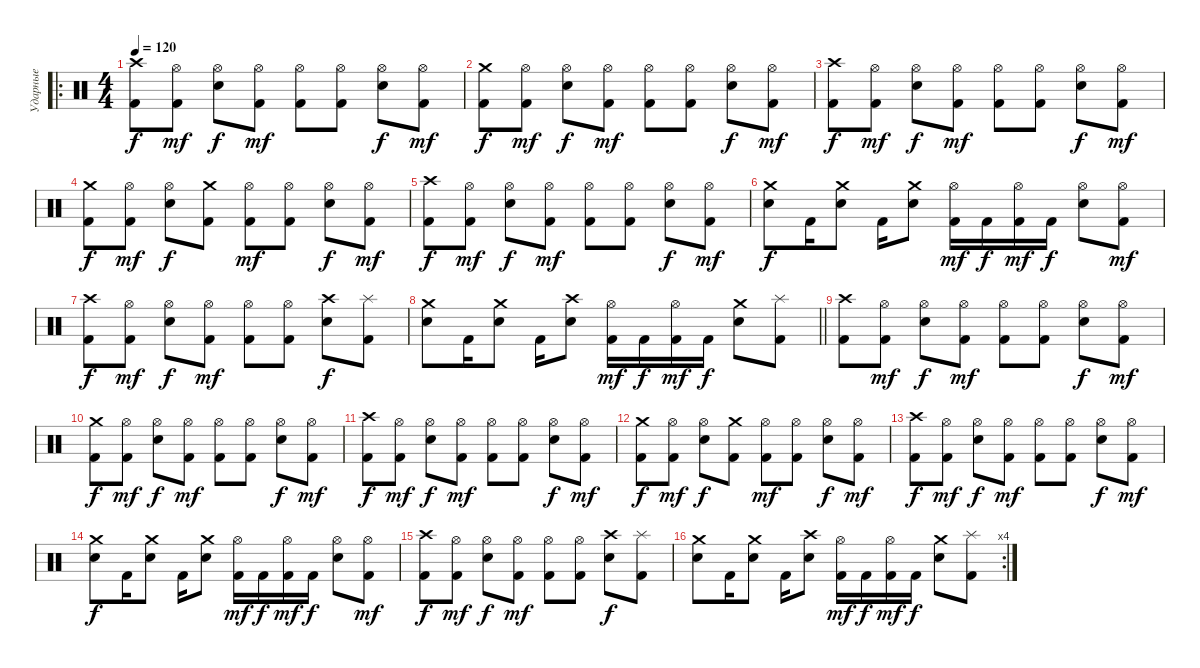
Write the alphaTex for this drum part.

\track ("Ударные" "Ударные") {instrument percussion}
\staff {score}
\articulation defaults
\ro
\ts (4 4)
\tempo 120
\clef neutral
\ks c
("Crash high (hit)" "Kick (hit) 2").8{dy f} ("Hi-Hat (open)" "Kick (hit) 2").8{dy mf} ("Hi-Hat (open)" "Electric Snare (hit)").8{dy f} ("Hi-Hat (open)" "Kick (hit) 2").8{dy mf} ("Hi-Hat (open)" "Kick (hit) 2").8 ("Hi-Hat (open)" "Kick (hit) 2").8 ("Hi-Hat (open)" "Electric Snare (hit)").8{dy f} ("Hi-Hat (open)" "Kick (hit) 2").8{dy mf} |
("Crash medium (hit)" "Kick (hit) 2").8{dy f} ("Hi-Hat (open)" "Kick (hit) 2").8{dy mf} ("Hi-Hat (open)" "Electric Snare (hit)").8{dy f} ("Hi-Hat (open)" "Kick (hit) 2").8{dy mf} ("Hi-Hat (open)" "Kick (hit) 2").8 ("Hi-Hat (open)" "Kick (hit) 2").8 ("Hi-Hat (open)" "Electric Snare (hit)").8{dy f} ("Hi-Hat (open)" "Kick (hit) 2").8{dy mf} |
("Crash high (hit)" "Kick (hit) 2").8{dy f} ("Hi-Hat (open)" "Kick (hit) 2").8{dy mf} ("Hi-Hat (open)" "Electric Snare (hit)").8{dy f} ("Hi-Hat (open)" "Kick (hit) 2").8{dy mf} ("Hi-Hat (open)" "Kick (hit) 2").8 ("Hi-Hat (open)" "Kick (hit) 2").8 ("Hi-Hat (open)" "Electric Snare (hit)").8{dy f} ("Hi-Hat (open)" "Kick (hit) 2").8{dy mf} |
("Crash medium (hit)" "Kick (hit) 2").8{dy f} ("Hi-Hat (open)" "Kick (hit) 2").8{dy mf} ("Hi-Hat (open)" "Electric Snare (hit)").8{dy f} ("Crash medium (hit)" "Kick (hit) 2").8 ("Hi-Hat (open)" "Kick (hit) 2").8{dy mf} ("Hi-Hat (open)" "Kick (hit) 2").8 ("Hi-Hat (open)" "Electric Snare (hit)").8{dy f} ("Hi-Hat (open)" "Kick (hit) 2").8{dy mf} |
("Crash high (hit)" "Kick (hit) 2").8{dy f} ("Hi-Hat (open)" "Kick (hit) 2").8{dy mf} ("Hi-Hat (open)" "Electric Snare (hit)").8{dy f} ("Hi-Hat (open)" "Kick (hit) 2").8{dy mf} ("Hi-Hat (open)" "Kick (hit) 2").8 ("Hi-Hat (open)" "Kick (hit) 2").8 ("Hi-Hat (open)" "Electric Snare (hit)").8{dy f} ("Hi-Hat (open)" "Kick (hit) 2").8{dy mf} |
("Crash medium (hit)" "Electric Snare (hit)").8{dy f} "Kick (hit) 2".16 ("Crash medium (hit)" "Electric Snare (hit)").8 "Kick (hit) 2".16 ("Crash medium (hit)" "Electric Snare (hit)").8 ("Hi-Hat (open)" "Kick (hit) 2").16{dy mf} "Kick (hit) 2".16{dy f} ("Hi-Hat (open)" "Kick (hit) 2").16{dy mf} "Kick (hit) 2".16{dy f} ("Hi-Hat (open)" "Electric Snare (hit)").8 ("Hi-Hat (open)" "Kick (hit) 2").8{dy mf} |
("Crash high (hit)" "Kick (hit) 2").8{dy f} ("Hi-Hat (open)" "Kick (hit) 2").8{dy mf} ("Hi-Hat (open)" "Electric Snare (hit)").8{dy f} ("Hi-Hat (open)" "Kick (hit) 2").8{dy mf} ("Hi-Hat (open)" "Kick (hit) 2").8 ("Hi-Hat (open)" "Kick (hit) 2").8 ("Crash high (hit)" "Electric Snare (hit)").8{dy f} ("Splash (hit)" "Kick (hit) 2").8 |
\barLineRight lightlight
("Crash medium (hit)" "Electric Snare (hit)").8 "Kick (hit) 2".16 ("Crash medium (hit)" "Electric Snare (hit)").8 "Kick (hit) 2".16 ("Crash high (hit)" "Electric Snare (hit)").8 ("Hi-Hat (open)" "Kick (hit) 2").16{dy mf} "Kick (hit) 2".16{dy f} ("Hi-Hat (open)" "Kick (hit) 2").16{dy mf} "Kick (hit) 2".16{dy f} ("Crash medium (hit)" "Electric Snare (hit)").8 ("Splash (hit)" "Kick (hit) 2").8 |
("Crash high (hit)" "Kick (hit) 2").8 ("Hi-Hat (open)" "Kick (hit) 2").8{dy mf} ("Hi-Hat (open)" "Electric Snare (hit)").8{dy f} ("Hi-Hat (open)" "Kick (hit) 2").8{dy mf} ("Hi-Hat (open)" "Kick (hit) 2").8 ("Hi-Hat (open)" "Kick (hit) 2").8 ("Hi-Hat (open)" "Electric Snare (hit)").8{dy f} ("Hi-Hat (open)" "Kick (hit) 2").8{dy mf} |
("Crash medium (hit)" "Kick (hit) 2").8{dy f} ("Hi-Hat (open)" "Kick (hit) 2").8{dy mf} ("Hi-Hat (open)" "Electric Snare (hit)").8{dy f} ("Hi-Hat (open)" "Kick (hit) 2").8{dy mf} ("Hi-Hat (open)" "Kick (hit) 2").8 ("Hi-Hat (open)" "Kick (hit) 2").8 ("Hi-Hat (open)" "Electric Snare (hit)").8{dy f} ("Hi-Hat (open)" "Kick (hit) 2").8{dy mf} |
("Crash high (hit)" "Kick (hit) 2").8{dy f} ("Hi-Hat (open)" "Kick (hit) 2").8{dy mf} ("Hi-Hat (open)" "Electric Snare (hit)").8{dy f} ("Hi-Hat (open)" "Kick (hit) 2").8{dy mf} ("Hi-Hat (open)" "Kick (hit) 2").8 ("Hi-Hat (open)" "Kick (hit) 2").8 ("Hi-Hat (open)" "Electric Snare (hit)").8{dy f} ("Hi-Hat (open)" "Kick (hit) 2").8{dy mf} |
("Crash medium (hit)" "Kick (hit) 2").8{dy f} ("Hi-Hat (open)" "Kick (hit) 2").8{dy mf} ("Hi-Hat (open)" "Electric Snare (hit)").8{dy f} ("Crash medium (hit)" "Kick (hit) 2").8 ("Hi-Hat (open)" "Kick (hit) 2").8{dy mf} ("Hi-Hat (open)" "Kick (hit) 2").8 ("Hi-Hat (open)" "Electric Snare (hit)").8{dy f} ("Hi-Hat (open)" "Kick (hit) 2").8{dy mf} |
("Crash high (hit)" "Kick (hit) 2").8{dy f} ("Hi-Hat (open)" "Kick (hit) 2").8{dy mf} ("Hi-Hat (open)" "Electric Snare (hit)").8{dy f} ("Hi-Hat (open)" "Kick (hit) 2").8{dy mf} ("Hi-Hat (open)" "Kick (hit) 2").8 ("Hi-Hat (open)" "Kick (hit) 2").8 ("Hi-Hat (open)" "Electric Snare (hit)").8{dy f} ("Hi-Hat (open)" "Kick (hit) 2").8{dy mf} |
("Crash medium (hit)" "Electric Snare (hit)").8{dy f} "Kick (hit) 2".16 ("Crash medium (hit)" "Electric Snare (hit)").8 "Kick (hit) 2".16 ("Crash medium (hit)" "Electric Snare (hit)").8 ("Hi-Hat (open)" "Kick (hit) 2").16{dy mf} "Kick (hit) 2".16{dy f} ("Hi-Hat (open)" "Kick (hit) 2").16{dy mf} "Kick (hit) 2".16{dy f} ("Hi-Hat (open)" "Electric Snare (hit)").8 ("Hi-Hat (open)" "Kick (hit) 2").8{dy mf} |
("Crash high (hit)" "Kick (hit) 2").8{dy f} ("Hi-Hat (open)" "Kick (hit) 2").8{dy mf} ("Hi-Hat (open)" "Electric Snare (hit)").8{dy f} ("Hi-Hat (open)" "Kick (hit) 2").8{dy mf} ("Hi-Hat (open)" "Kick (hit) 2").8 ("Hi-Hat (open)" "Kick (hit) 2").8 ("Crash high (hit)" "Electric Snare (hit)").8{dy f} ("Splash (hit)" "Kick (hit) 2").8 |
\rc 4
("Crash medium (hit)" "Electric Snare (hit)").8 "Kick (hit) 2".16 ("Crash medium (hit)" "Electric Snare (hit)").8 "Kick (hit) 2".16 ("Crash high (hit)" "Electric Snare (hit)").8 ("Hi-Hat (open)" "Kick (hit) 2").16{dy mf} "Kick (hit) 2".16{dy f} ("Hi-Hat (open)" "Kick (hit) 2").16{dy mf} "Kick (hit) 2".16{dy f} ("Crash medium (hit)" "Electric Snare (hit)").8 ("Splash (hit)" "Kick (hit) 2").8
